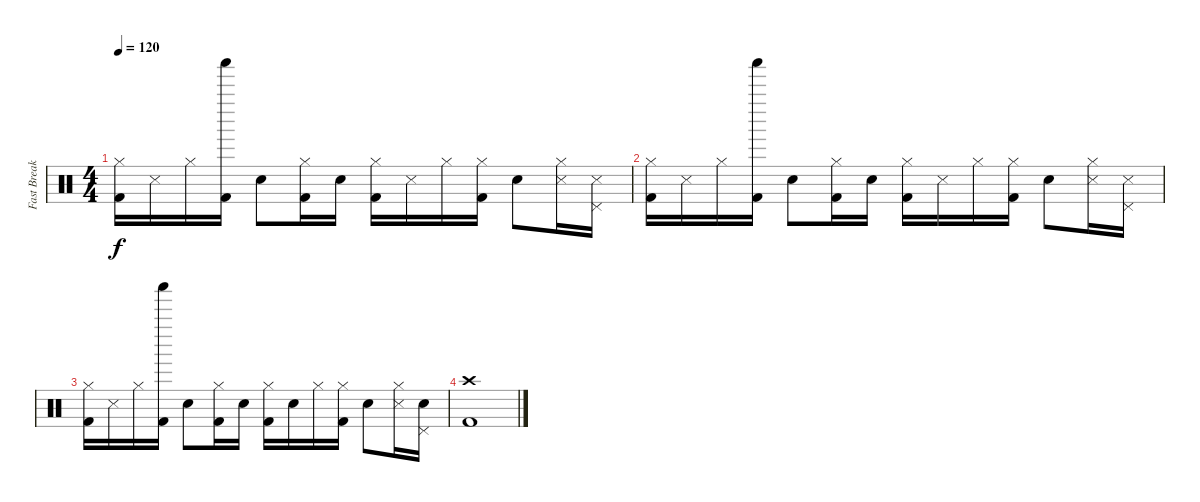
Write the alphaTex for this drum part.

\track ("Fast Break Drums" "Fast Break") {instrument percussion}
\staff {score}
\articulation defaults
\ts (4 4)
\tempo 120
\clef neutral
\ks c
("Kick (hit) 2" "Hi-Hat (closed)").16{dy f} "Snare (side stick) 3".16 "Hi-Hat (closed)".16 ("Kick (hit) 2" "Shaker (hit)").16 "Snare (hit) 2".8 ("Kick (hit) 2" "Hi-Hat (closed)").16 "Snare (hit) 2".16 ("Kick (hit) 2" "Hi-Hat (closed)").16 "Snare (side stick) 3".16 "Hi-Hat (closed)".16 ("Kick (hit) 2" "Hi-Hat (closed)").16 "Snare (hit) 2".8 ("Snare (side stick) 3" "Hi-Hat (closed)").16 ("Snare (side stick) 3" "Pedal Hi-Hat (hit)").16 |
("Kick (hit) 2" "Hi-Hat (closed)").16 "Snare (side stick) 3".16 "Hi-Hat (closed)".16 ("Kick (hit) 2" "Shaker (hit)").16 "Snare (hit) 2".8 ("Kick (hit) 2" "Hi-Hat (closed)").16 "Snare (hit) 2".16 ("Kick (hit) 2" "Hi-Hat (closed)").16 "Snare (side stick) 3".16 "Hi-Hat (closed)".16 ("Kick (hit) 2" "Hi-Hat (closed)").16 "Snare (hit) 2".8 ("Snare (side stick) 3" "Hi-Hat (closed)").16 ("Snare (side stick) 3" "Pedal Hi-Hat (hit)").16 |
("Kick (hit) 2" "Hi-Hat (closed)").16 "Snare (side stick) 3".16 "Hi-Hat (closed)".16 ("Kick (hit) 2" "Shaker (hit)").16 "Snare (hit) 2".8 ("Kick (hit) 2" "Hi-Hat (closed)").16 "Snare (hit) 2".16 ("Kick (hit) 2" "Hi-Hat (closed)").16 "Snare (hit) 2".16 "Hi-Hat (closed)".16 ("Kick (hit) 2" "Hi-Hat (closed)").16 "Snare (hit) 2".8 ("Snare (side stick) 3" "Hi-Hat (closed)").16 ("Snare (hit) 2" "Pedal Hi-Hat (hit)").16 |
("Kick (hit) 2" "Crash high (hit)").1
